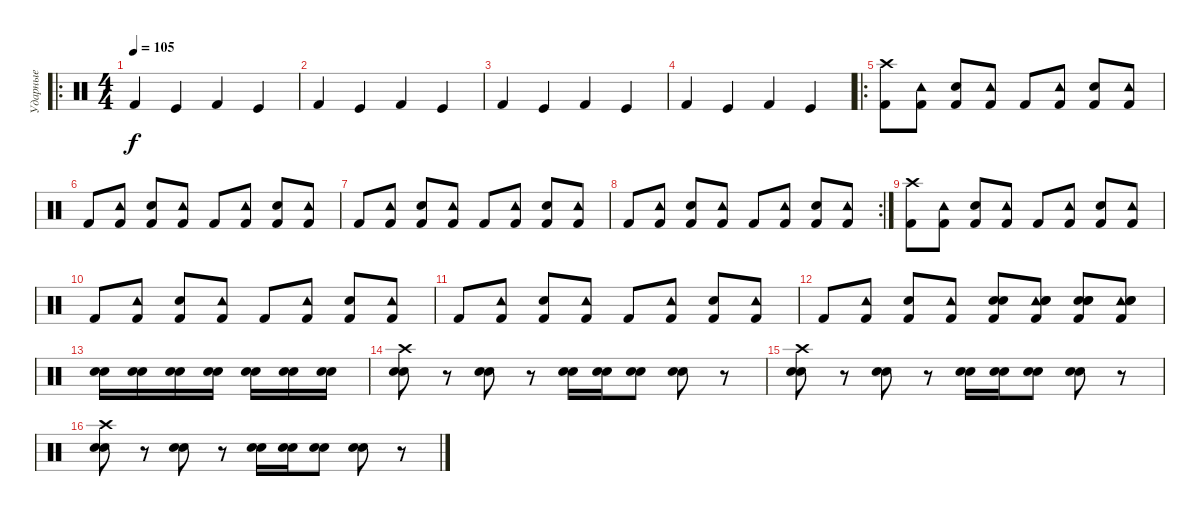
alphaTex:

\track ("Ударные" "Ударные") {instrument percussion}
\staff {score}
\articulation defaults
\ro
\ts (4 4)
\tempo 105
\clef neutral
\ks c "Kick (hit) 2".4{dy f} "Kick (hit)".4 "Kick (hit) 2".4 "Kick (hit)".4
|
"Kick (hit) 2".4 "Kick (hit)".4 "Kick (hit) 2".4 "Kick (hit)".4 |
"Kick (hit) 2".4 "Kick (hit)".4 "Kick (hit) 2".4 "Kick (hit)".4 |
"Kick (hit) 2".4 "Kick (hit)".4 "Kick (hit) 2".4 "Kick (hit)".4 |
\ro
("Kick (hit) 2" "Crash high (hit)").8 ("Kick (hit) 2" "Tambourine (hit)").8 ("Electric Snare (hit)" "Kick (hit) 2").8 ("Kick (hit) 2" "Tambourine (hit)").8 "Kick (hit) 2".8 ("Kick (hit) 2" "Tambourine (hit)").8 ("Electric Snare (hit)" "Kick (hit) 2").8 ("Kick (hit) 2" "Tambourine (hit)").8 |
"Kick (hit) 2".8 ("Kick (hit) 2" "Tambourine (hit)").8 ("Electric Snare (hit)" "Kick (hit) 2").8 ("Kick (hit) 2" "Tambourine (hit)").8 "Kick (hit) 2".8 ("Kick (hit) 2" "Tambourine (hit)").8 ("Electric Snare (hit)" "Kick (hit) 2").8 ("Kick (hit) 2" "Tambourine (hit)").8 |
"Kick (hit) 2".8 ("Kick (hit) 2" "Tambourine (hit)").8 ("Electric Snare (hit)" "Kick (hit) 2").8 ("Kick (hit) 2" "Tambourine (hit)").8 "Kick (hit) 2".8 ("Kick (hit) 2" "Tambourine (hit)").8 ("Electric Snare (hit)" "Kick (hit) 2").8 ("Kick (hit) 2" "Tambourine (hit)").8 |
\rc 2 "Kick (hit) 2".8
("Kick (hit) 2" "Tambourine (hit)").8 ("Electric Snare (hit)" "Kick (hit) 2").8 ("Kick (hit) 2" "Tambourine (hit)").8 "Kick (hit) 2".8 ("Kick (hit) 2" "Tambourine (hit)").8 ("Electric Snare (hit)" "Kick (hit) 2").8 ("Kick (hit) 2" "Tambourine (hit)").8 |
("Kick (hit) 2" "Crash high (hit)").8 ("Kick (hit) 2" "Tambourine (hit)").8 ("Electric Snare (hit)" "Kick (hit) 2").8 ("Kick (hit) 2" "Tambourine (hit)").8 "Kick (hit) 2".8 ("Kick (hit) 2" "Tambourine (hit)").8 ("Electric Snare (hit)" "Kick (hit) 2").8 ("Kick (hit) 2" "Tambourine (hit)").8 |
"Kick (hit) 2".8 ("Kick (hit) 2" "Tambourine (hit)").8 ("Electric Snare (hit)" "Kick (hit) 2").8 ("Kick (hit) 2" "Tambourine (hit)").8 "Kick (hit) 2".8 ("Kick (hit) 2" "Tambourine (hit)").8 ("Electric Snare (hit)" "Kick (hit) 2").8 ("Kick (hit) 2" "Tambourine (hit)").8 |
"Kick (hit) 2".8 ("Kick (hit) 2" "Tambourine (hit)").8 ("Electric Snare (hit)" "Kick (hit) 2").8 ("Kick (hit) 2" "Tambourine (hit)").8 "Kick (hit) 2".8 ("Kick (hit) 2" "Tambourine (hit)").8 ("Electric Snare (hit)" "Kick (hit) 2").8 ("Kick (hit) 2" "Tambourine (hit)").8 |
"Kick (hit) 2".8 ("Kick (hit) 2" "Tambourine (hit)").8 ("Electric Snare (hit)" "Kick (hit) 2").8 ("Kick (hit) 2" "Tambourine (hit)").8 ("Kick (hit) 2" "Electric Snare (hit)" "Snare (hit) 2").8 ("Kick (hit) 2" "Tambourine (hit)" "Electric Snare (hit)" "Snare (hit) 2").8 ("Electric Snare (hit)" "Kick (hit) 2" "Electric Snare (hit)" "Snare (hit) 2").8 ("Kick (hit) 2" "Tambourine (hit)" "Electric Snare (hit)" "Snare (hit) 2").8 |
("Electric Snare (hit)" "Snare (hit) 2").16 ("Electric Snare (hit)" "Snare (hit) 2").16 ("Electric Snare (hit)" "Snare (hit) 2").16 ("Electric Snare (hit)" "Snare (hit) 2").16 ("Electric Snare (hit)" "Snare (hit) 2").16 ("Electric Snare (hit)" "Snare (hit) 2").16 ("Electric Snare (hit)" "Snare (hit) 2").16 |
("Electric Snare (hit)" "Snare (hit) 2" "Crash high (hit)").8 r.8 ("Electric Snare (hit)" "Snare (hit) 2").8 r.8 ("Electric Snare (hit)" "Snare (hit) 2").16 ("Electric Snare (hit)" "Snare (hit) 2").16 ("Electric Snare (hit)" "Snare (hit) 2").8 ("Electric Snare (hit)" "Snare (hit) 2").8 r.8 |
("Electric Snare (hit)" "Snare (hit) 2" "Crash high (hit)").8 r.8 ("Electric Snare (hit)" "Snare (hit) 2").8 r.8 ("Electric Snare (hit)" "Snare (hit) 2").16 ("Electric Snare (hit)" "Snare (hit) 2").16 ("Electric Snare (hit)" "Snare (hit) 2").8 ("Electric Snare (hit)" "Snare (hit) 2").8 r.8 |
("Electric Snare (hit)" "Snare (hit) 2" "Crash high (hit)").8 r.8 ("Electric Snare (hit)" "Snare (hit) 2").8 r.8 ("Electric Snare (hit)" "Snare (hit) 2").16 ("Electric Snare (hit)" "Snare (hit) 2").16 ("Electric Snare (hit)" "Snare (hit) 2").8 ("Electric Snare (hit)" "Snare (hit) 2").8 r.8
